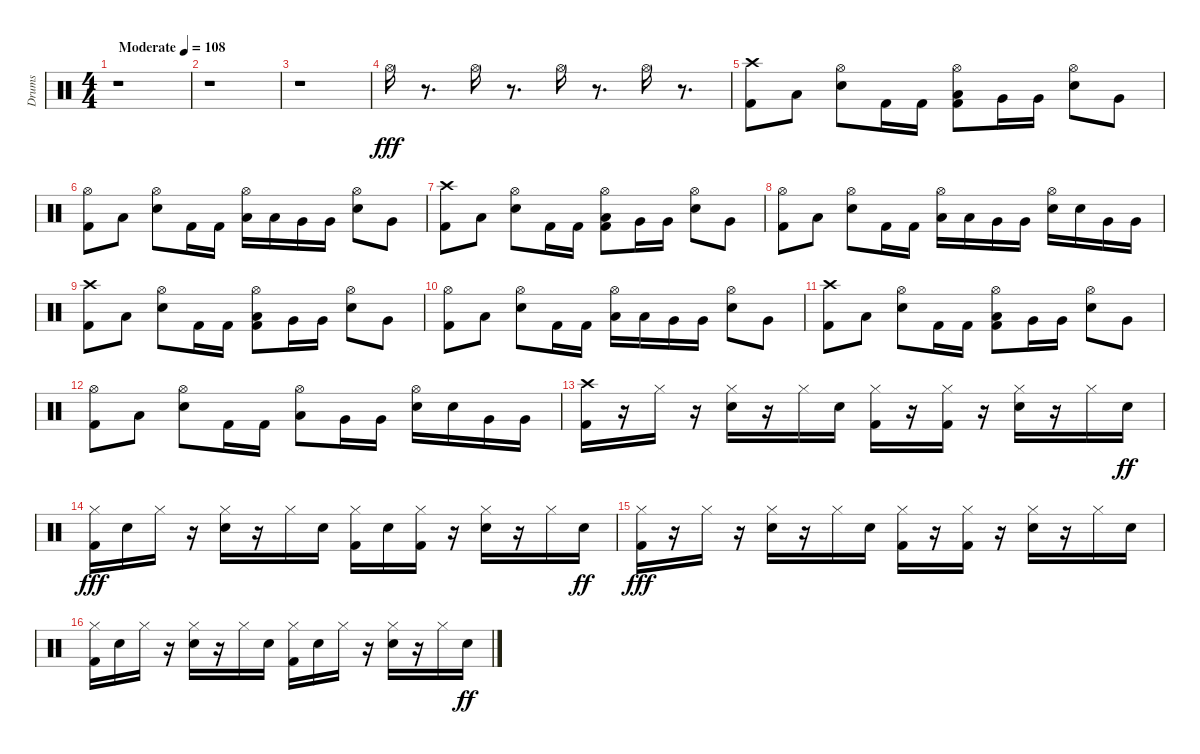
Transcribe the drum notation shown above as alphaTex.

\track ("Drums " "Drums ") {instrument percussion}
\staff {score}
\articulation defaults
\ts (4 4)
\tempo (108 "Moderate")
\clef neutral
\ks c
r.1{dy fff} |
r.1 |
r.1 |
"Hi-Hat (open)".16 r.8{d} "Hi-Hat (open)".16 r.8{d} "Hi-Hat (open)".16 r.8{d} "Hi-Hat (open)".16 r.8{d} |
("Kick (hit) 2" "Crash high (hit)").8 "Low Tom (hit)".8 ("Snare (hit) 2" "Hi-Hat (open)").8 "Kick (hit) 2".16 "Kick (hit) 2".16 ("Kick (hit) 2" "Low Tom (hit)" "Hi-Hat (open)").8 "Very Low Tom (hit)".16 "Very Low Tom (hit)".16 ("Snare (hit) 2" "Hi-Hat (open)").8 "Very Low Tom (hit)".8 |
("Kick (hit) 2" "Hi-Hat (open)").8 "Low Tom (hit)".8 ("Snare (hit) 2" "Hi-Hat (open)").8 "Kick (hit) 2".16 "Kick (hit) 2".16 ("Low Tom (hit)" "Hi-Hat (open)").16 "Low Tom (hit)".16 "Very Low Tom (hit)".16 "Very Low Tom (hit)".16 ("Snare (hit) 2" "Hi-Hat (open)").8 "Very Low Tom (hit)".8 |
("Kick (hit) 2" "Crash high (hit)").8 "Low Tom (hit)".8 ("Snare (hit) 2" "Hi-Hat (open)").8 "Kick (hit) 2".16 "Kick (hit) 2".16 ("Kick (hit) 2" "Low Tom (hit)" "Hi-Hat (open)").8 "Very Low Tom (hit)".16 "Very Low Tom (hit)".16 ("Snare (hit) 2" "Hi-Hat (open)").8 "Very Low Tom (hit)".8 |
("Kick (hit) 2" "Hi-Hat (open)").8 "Low Tom (hit)".8 ("Snare (hit) 2" "Hi-Hat (open)").8 "Kick (hit) 2".16 "Kick (hit) 2".16 ("Low Tom (hit)" "Hi-Hat (open)").16 "Low Tom (hit)".16 "Very Low Tom (hit)".16 "Very Low Tom (hit)".16 ("Snare (hit) 2" "Hi-Hat (open)").16 "Snare (hit) 2".16 "Very Low Tom (hit)".16 "Very Low Tom (hit)".16 |
("Kick (hit) 2" "Crash high (hit)").8 "Low Tom (hit)".8 ("Snare (hit) 2" "Hi-Hat (open)").8 "Kick (hit) 2".16 "Kick (hit) 2".16 ("Kick (hit) 2" "Low Tom (hit)" "Hi-Hat (open)").8 "Very Low Tom (hit)".16 "Very Low Tom (hit)".16 ("Snare (hit) 2" "Hi-Hat (open)").8 "Very Low Tom (hit)".8 |
("Kick (hit) 2" "Hi-Hat (open)").8 "Low Tom (hit)".8 ("Snare (hit) 2" "Hi-Hat (open)").8 "Kick (hit) 2".16 "Kick (hit) 2".16 ("Low Tom (hit)" "Hi-Hat (open)").16 "Low Tom (hit)".16 "Very Low Tom (hit)".16 "Very Low Tom (hit)".16 ("Snare (hit) 2" "Hi-Hat (open)").8 "Very Low Tom (hit)".8 |
("Kick (hit) 2" "Crash high (hit)").8 "Low Tom (hit)".8 ("Snare (hit) 2" "Hi-Hat (open)").8 "Kick (hit) 2".16 "Kick (hit) 2".16 ("Kick (hit) 2" "Low Tom (hit)" "Hi-Hat (open)").8 "Very Low Tom (hit)".16 "Very Low Tom (hit)".16 ("Snare (hit) 2" "Hi-Hat (open)").8 "Very Low Tom (hit)".8 |
("Kick (hit) 2" "Hi-Hat (open)").8 "Low Tom (hit)".8 ("Snare (hit) 2" "Hi-Hat (open)").8 "Kick (hit) 2".16 "Kick (hit) 2".16 ("Low Tom (hit)" "Hi-Hat (open)").8 "Very Low Tom (hit)".16 "Very Low Tom (hit)".16 ("Snare (hit) 2" "Hi-Hat (open)").16 "Snare (hit) 2".16 "Very Low Tom (hit)".16 "Very Low Tom (hit)".16 |
("Kick (hit) 2" "Crash high (hit)").16 r.16 "Hi-Hat (closed)".16 r.16 ("Snare (hit) 2" "Hi-Hat (closed)").16 r.16 "Hi-Hat (closed)".16 "Snare (hit) 2".16 ("Kick (hit) 2" "Hi-Hat (closed)").16 r.16 ("Kick (hit) 2" "Hi-Hat (closed)").16 r.16 ("Snare (hit) 2" "Hi-Hat (closed)").16 r.16 "Hi-Hat (closed)".16 "Snare (hit) 2".16{dy ff} |
("Kick (hit) 2" "Hi-Hat (closed)").16{dy fff} "Snare (hit) 2".16 "Hi-Hat (closed)".16 r.16 ("Snare (hit) 2" "Hi-Hat (closed)").16 r.16 "Hi-Hat (closed)".16 "Snare (hit) 2".16 ("Kick (hit) 2" "Hi-Hat (closed)").16 "Snare (hit) 2".16 ("Kick (hit) 2" "Hi-Hat (closed)").16 r.16 ("Snare (hit) 2" "Hi-Hat (closed)").16 r.16 "Hi-Hat (closed)".16 "Snare (hit) 2".16{dy ff} |
("Kick (hit) 2" "Hi-Hat (closed)").16{dy fff} r.16 "Hi-Hat (closed)".16 r.16 ("Snare (hit) 2" "Hi-Hat (closed)").16 r.16 "Hi-Hat (closed)".16 "Snare (hit) 2".16 ("Kick (hit) 2" "Hi-Hat (closed)").16 r.16 ("Kick (hit) 2" "Hi-Hat (closed)").16 r.16 ("Snare (hit) 2" "Hi-Hat (closed)").16 r.16 "Hi-Hat (closed)".16 "Snare (hit) 2".16 |
("Kick (hit) 2" "Hi-Hat (closed)").16 "Snare (hit) 2".16 "Hi-Hat (closed)".16 r.16 ("Snare (hit) 2" "Hi-Hat (closed)").16 r.16 "Hi-Hat (closed)".16 "Snare (hit) 2".16 ("Kick (hit) 2" "Hi-Hat (closed)").16 "Snare (hit) 2".16 "Hi-Hat (closed)".16 r.16 ("Snare (hit) 2" "Hi-Hat (closed)").16 r.16 "Hi-Hat (closed)".16 "Snare (hit) 2".16{dy ff}
